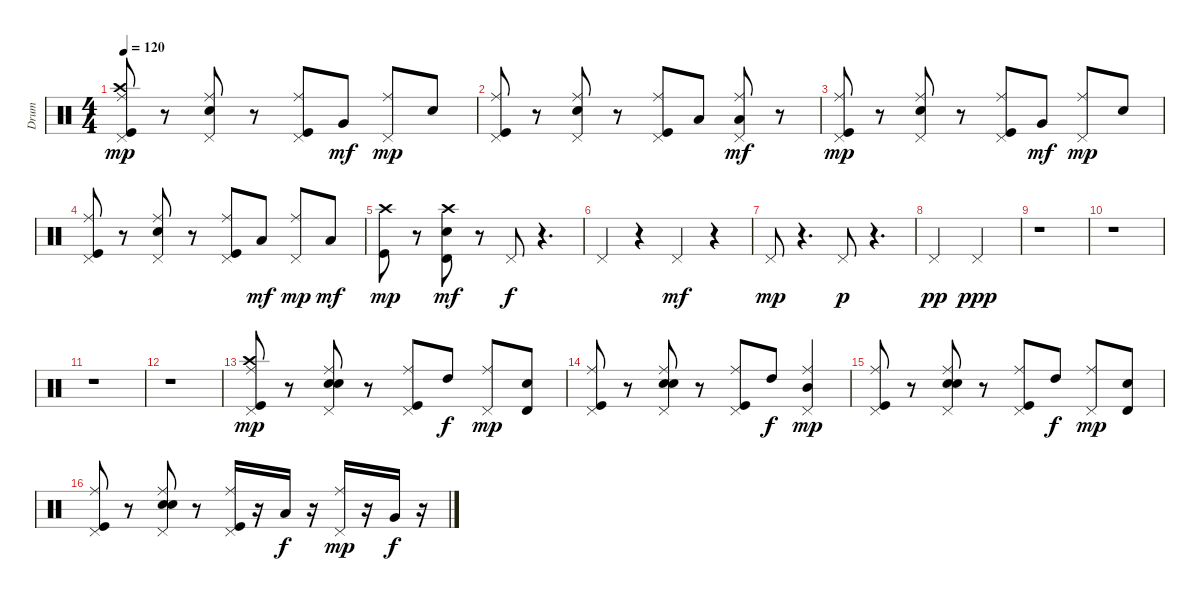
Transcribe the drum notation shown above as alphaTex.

\track ("Drum" "Drum") {instrument percussion}
\staff {score}
\articulation defaults
\ts (4 4)
\tempo 120
\clef neutral
\ks c
("Pedal Hi-Hat (hit)" "Crash high (hit)" "Ride (middle)" "Kick (hit)").8{dy mp} r.8 ("Pedal Hi-Hat (hit)" "Snare (hit) 2" "Ride (middle)").8 r.8 ("Pedal Hi-Hat (hit)" "Ride (middle)" "Kick (hit)").8 "Very Low Tom (hit)".8{dy mf} ("Pedal Hi-Hat (hit)" "Ride (middle)").8{dy mp} "Snare (hit) 2".8 |
("Pedal Hi-Hat (hit)" "Ride (middle)" "Kick (hit)").8 r.8 ("Pedal Hi-Hat (hit)" "Snare (hit) 2" "Ride (middle)").8 r.8 ("Pedal Hi-Hat (hit)" "Ride (middle)" "Kick (hit)").8 "Low Tom (hit)".8 ("Pedal Hi-Hat (hit)" "Ride (middle)" "Low Floor Tom (hit)").8{dy mf} r.8 |
("Pedal Hi-Hat (hit)" "Ride (middle)" "Kick (hit)").8{dy mp} r.8 ("Pedal Hi-Hat (hit)" "Snare (hit) 2" "Ride (middle)").8 r.8 ("Pedal Hi-Hat (hit)" "Ride (middle)" "Kick (hit)").8 "Very Low Tom (hit)".8{dy mf} ("Pedal Hi-Hat (hit)" "Ride (middle)").8{dy mp} "Snare (hit) 2".8 |
("Pedal Hi-Hat (hit)" "Ride (middle)" "Kick (hit)").8 r.8 ("Pedal Hi-Hat (hit)" "Snare (hit) 2" "Ride (middle)").8 r.8 ("Pedal Hi-Hat (hit)" "Ride (middle)" "Kick (hit)").8 "Low Tom (hit)".8{dy mf} ("Pedal Hi-Hat (hit)" "Ride (middle)").8{dy mp} "Low Tom (hit)".8{dy mf} |
("Crash high (hit)" "Kick (hit)").8{dy mp} r.8 ("Crash high (hit)" "Timbale high (hit)" "Electric Snare (hit)").8{dy mf} r.8 "Pedal Hi-Hat (hit)".8{dy f} r.4{d} |
"Pedal Hi-Hat (hit)".4 r.4 "Pedal Hi-Hat (hit)".4{dy mf} r.4 |
"Pedal Hi-Hat (hit)".8{dy mp} r.4{d} "Pedal Hi-Hat (hit)".8{dy p} r.4{d} |
"Pedal Hi-Hat (hit)".2{dy pp} "Pedal Hi-Hat (hit)".2{dy ppp} |
r.1 |
r.1 |
r.1 |
r.1 |
("Pedal Hi-Hat (hit)" "Crash high (hit)" "Ride (middle)" "Kick (hit)").8{dy mp} r.8 ("Pedal Hi-Hat (hit)" "Electric Snare (hit)" "Snare (hit) 2" "Ride (middle)").8 r.8 ("Pedal Hi-Hat (hit)" "Ride (middle)" "Kick (hit)").8 "High Tom (hit)".8{dy f} ("Pedal Hi-Hat (hit)" "Ride (middle)").8{dy mp} ("Timbale high (hit)" "Electric Snare (hit)").8 |
("Pedal Hi-Hat (hit)" "Ride (middle)" "Kick (hit)").8 r.8 ("Pedal Hi-Hat (hit)" "Electric Snare (hit)" "Snare (hit) 2" "Ride (middle)").8 r.8 ("Pedal Hi-Hat (hit)" "Ride (middle)" "Kick (hit)").8 "High Tom (hit)".8{dy f} ("Pedal Hi-Hat (hit)" "Ride (middle)" "Mid Tom (hit)").4{dy mp} |
("Pedal Hi-Hat (hit)" "Ride (middle)" "Kick (hit)").8 r.8 ("Pedal Hi-Hat (hit)" "Electric Snare (hit)" "Snare (hit) 2" "Ride (middle)").8 r.8 ("Pedal Hi-Hat (hit)" "Ride (middle)" "Kick (hit)").8 "High Tom (hit)".8{dy f} ("Pedal Hi-Hat (hit)" "Ride (middle)").8{dy mp} ("Timbale high (hit)" "Electric Snare (hit)").8 |
("Pedal Hi-Hat (hit)" "Ride (middle)" "Kick (hit)").8 r.8 ("Pedal Hi-Hat (hit)" "Electric Snare (hit)" "Snare (hit) 2" "Ride (middle)").8 r.8 ("Pedal Hi-Hat (hit)" "Ride (middle)" "Kick (hit)").16 r.16 "Low Tom (hit)".16{dy f} r.16 ("Pedal Hi-Hat (hit)" "Ride (middle)").16{dy mp} r.16 "Very Low Tom (hit)".16{dy f} r.16
